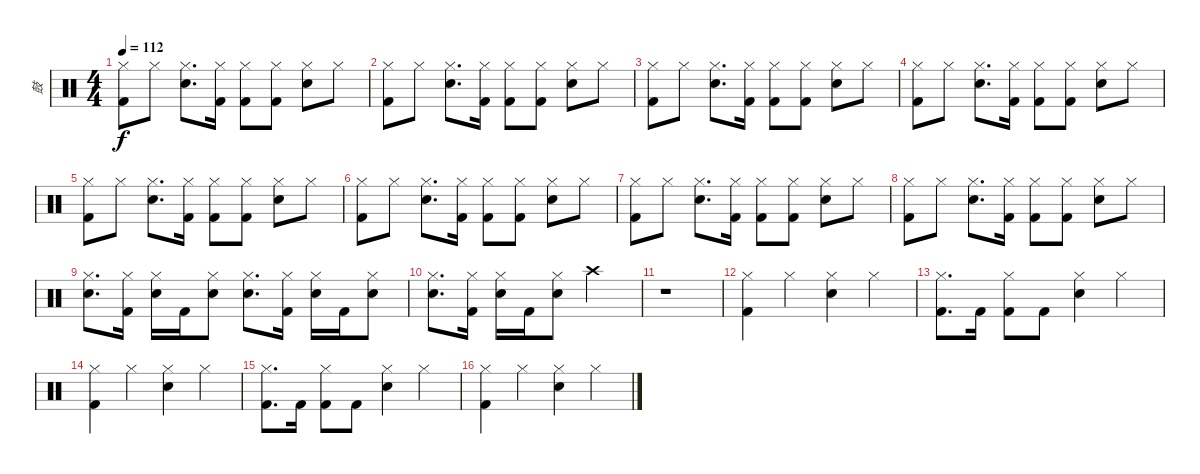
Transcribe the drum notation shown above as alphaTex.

\track ("鼓" "鼓") {instrument percussion}
\staff {score}
\articulation defaults
\ts (4 4)
\tempo 112
\clef neutral
\ks c
("Hi-Hat (closed)" "Kick (hit) 2").8{dy f} "Hi-Hat (closed)".8 ("Hi-Hat (closed)" "Snare (hit) 2").8{d} ("Hi-Hat (closed)" "Kick (hit) 2").16 ("Hi-Hat (closed)" "Kick (hit) 2").8 ("Hi-Hat (closed)" "Kick (hit) 2").8 ("Hi-Hat (closed)" "Snare (hit) 2").8 "Hi-Hat (closed)".8 |
("Hi-Hat (closed)" "Kick (hit) 2").8 "Hi-Hat (closed)".8 ("Hi-Hat (closed)" "Snare (hit) 2").8{d} ("Hi-Hat (closed)" "Kick (hit) 2").16 ("Hi-Hat (closed)" "Kick (hit) 2").8 ("Hi-Hat (closed)" "Kick (hit) 2").8 ("Hi-Hat (closed)" "Snare (hit) 2").8 "Hi-Hat (closed)".8 |
("Hi-Hat (closed)" "Kick (hit) 2").8 "Hi-Hat (closed)".8 ("Hi-Hat (closed)" "Snare (hit) 2").8{d} ("Hi-Hat (closed)" "Kick (hit) 2").16 ("Hi-Hat (closed)" "Kick (hit) 2").8 ("Hi-Hat (closed)" "Kick (hit) 2").8 ("Hi-Hat (closed)" "Snare (hit) 2").8 "Hi-Hat (closed)".8 |
("Hi-Hat (closed)" "Kick (hit) 2").8 "Hi-Hat (closed)".8 ("Hi-Hat (closed)" "Snare (hit) 2").8{d} ("Hi-Hat (closed)" "Kick (hit) 2").16 ("Hi-Hat (closed)" "Kick (hit) 2").8 ("Hi-Hat (closed)" "Kick (hit) 2").8 ("Hi-Hat (closed)" "Snare (hit) 2").8 "Hi-Hat (closed)".8 |
("Hi-Hat (closed)" "Kick (hit) 2").8 "Hi-Hat (closed)".8 ("Hi-Hat (closed)" "Snare (hit) 2").8{d} ("Hi-Hat (closed)" "Kick (hit) 2").16 ("Hi-Hat (closed)" "Kick (hit) 2").8 ("Hi-Hat (closed)" "Kick (hit) 2").8 ("Hi-Hat (closed)" "Snare (hit) 2").8 "Hi-Hat (closed)".8 |
("Hi-Hat (closed)" "Kick (hit) 2").8 "Hi-Hat (closed)".8 ("Hi-Hat (closed)" "Snare (hit) 2").8{d} ("Hi-Hat (closed)" "Kick (hit) 2").16 ("Hi-Hat (closed)" "Kick (hit) 2").8 ("Hi-Hat (closed)" "Kick (hit) 2").8 ("Hi-Hat (closed)" "Snare (hit) 2").8 "Hi-Hat (closed)".8 |
("Hi-Hat (closed)" "Kick (hit) 2").8 "Hi-Hat (closed)".8 ("Hi-Hat (closed)" "Snare (hit) 2").8{d} ("Hi-Hat (closed)" "Kick (hit) 2").16 ("Hi-Hat (closed)" "Kick (hit) 2").8 ("Hi-Hat (closed)" "Kick (hit) 2").8 ("Hi-Hat (closed)" "Snare (hit) 2").8 "Hi-Hat (closed)".8 |
("Hi-Hat (closed)" "Kick (hit) 2").8 "Hi-Hat (closed)".8 ("Hi-Hat (closed)" "Snare (hit) 2").8{d} ("Hi-Hat (closed)" "Kick (hit) 2").16 ("Hi-Hat (closed)" "Kick (hit) 2").8 ("Hi-Hat (closed)" "Kick (hit) 2").8 ("Hi-Hat (closed)" "Snare (hit) 2").8 "Hi-Hat (closed)".8 |
("Hi-Hat (closed)" "Snare (hit) 2").8{d} ("Hi-Hat (closed)" "Kick (hit) 2").16 ("Hi-Hat (closed)" "Snare (hit) 2").16 "Kick (hit) 2".16 ("Hi-Hat (closed)" "Snare (hit) 2").8 ("Hi-Hat (closed)" "Snare (hit) 2").8{d} ("Hi-Hat (closed)" "Kick (hit) 2").16 ("Hi-Hat (closed)" "Snare (hit) 2").16 "Kick (hit) 2".16 ("Hi-Hat (closed)" "Snare (hit) 2").8 |
("Hi-Hat (closed)" "Snare (hit) 2").8{d} ("Hi-Hat (closed)" "Kick (hit) 2").16 ("Hi-Hat (closed)" "Snare (hit) 2").16 "Kick (hit) 2".16 ("Hi-Hat (closed)" "Snare (hit) 2").8 "Crash high (hit)".2 |
r.1 |
("Hi-Hat (closed)" "Kick (hit) 2").4 "Hi-Hat (closed)".4 ("Hi-Hat (closed)" "Snare (hit) 2").4 "Hi-Hat (closed)".4 |
("Hi-Hat (closed)" "Kick (hit) 2").8{d} "Kick (hit) 2".16 ("Hi-Hat (closed)" "Kick (hit) 2").8 "Kick (hit) 2".8 ("Hi-Hat (closed)" "Snare (hit) 2").4 "Hi-Hat (closed)".4 |
("Hi-Hat (closed)" "Kick (hit) 2").4 "Hi-Hat (closed)".4 ("Hi-Hat (closed)" "Snare (hit) 2").4 "Hi-Hat (closed)".4 |
("Hi-Hat (closed)" "Kick (hit) 2").8{d} "Kick (hit) 2".16 ("Hi-Hat (closed)" "Kick (hit) 2").8 "Kick (hit) 2".8 ("Hi-Hat (closed)" "Snare (hit) 2").4 "Hi-Hat (closed)".4 |
("Hi-Hat (closed)" "Kick (hit) 2").4 "Hi-Hat (closed)".4 ("Hi-Hat (closed)" "Snare (hit) 2").4 "Hi-Hat (closed)".4
